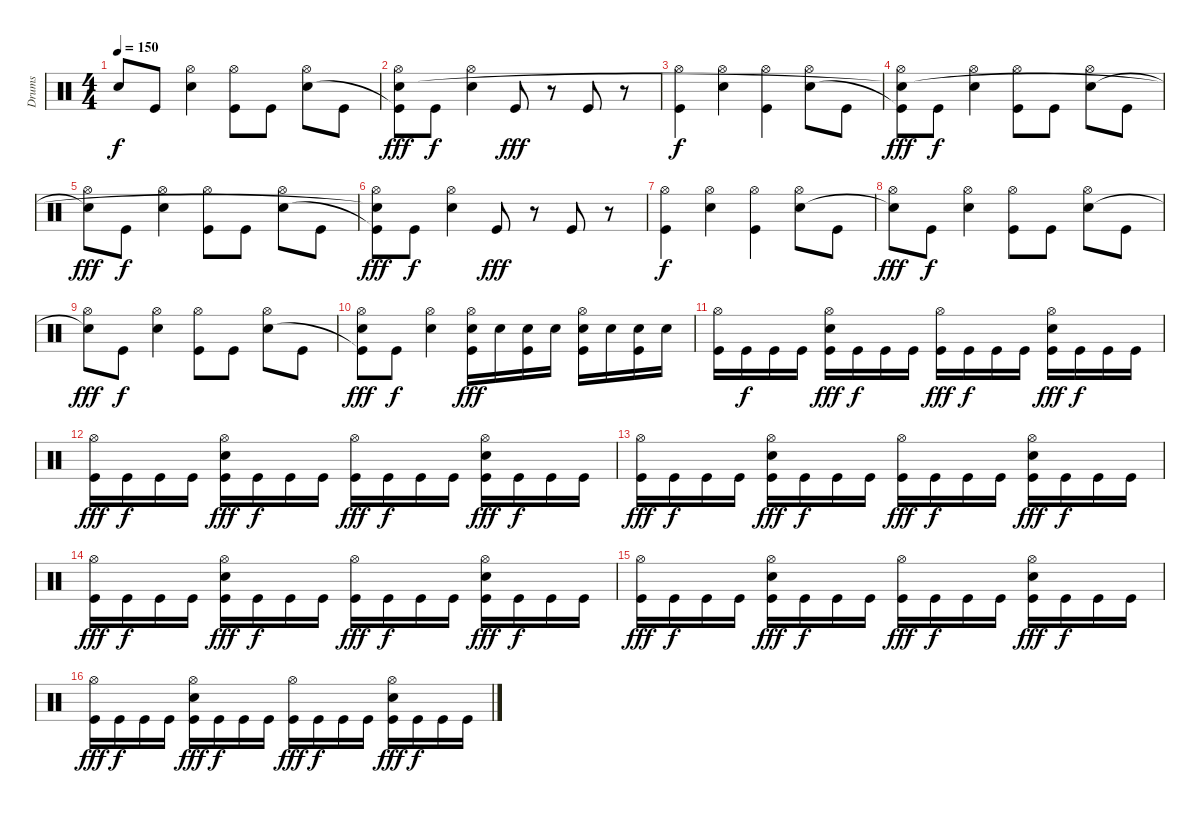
\track ("Drums" "Drums") {instrument percussion}
\staff {score}
\articulation defaults
\ts (4 4)
\tempo 150
\clef neutral
\ks c "Snare (hit)"{t}.8{dy f} "Kick (hit)".8
("Hi-Hat (open)" "Snare (hit) 2").4 ("Hi-Hat (open)" "Kick (hit)").8 "Kick (hit)".8 ("Hi-Hat (open)" "Snare (hit) 2").8 "Kick (hit)".8 |
("Hi-Hat (open)" "Kick (hit)"{t} "Snare (hit)"{t}).8{dy fff} "Kick (hit)".8{dy f} ("Hi-Hat (open)" "Snare (hit) 2").4 "Kick (hit)".8{dy fff} r.8 "Kick (hit)".8 r.8 |
("Hi-Hat (open)" "Kick (hit)").4{dy f} ("Hi-Hat (open)" "Snare (hit) 2").4 ("Hi-Hat (open)" "Kick (hit)").4 ("Hi-Hat (open)" "Snare (hit) 2").8 "Kick (hit)".8 |
("Hi-Hat (open)" "Kick (hit)"{t} "Snare (hit)"{t}).8{dy fff} "Kick (hit)".8{dy f} ("Hi-Hat (open)" "Snare (hit) 2").4 ("Hi-Hat (open)" "Kick (hit)").8 "Kick (hit)".8 ("Hi-Hat (open)" "Snare (hit) 2").8 "Kick (hit)".8 |
("Hi-Hat (open)" "Snare (hit)"{t}).8{dy fff} "Kick (hit)".8{dy f} ("Hi-Hat (open)" "Snare (hit) 2").4 ("Hi-Hat (open)" "Kick (hit)").8 "Kick (hit)".8 ("Hi-Hat (open)" "Snare (hit) 2").8 "Kick (hit)".8 |
("Hi-Hat (open)" "Kick (hit)"{t} "Snare (hit)"{t}).8{dy fff} "Kick (hit)".8{dy f} ("Hi-Hat (open)" "Snare (hit) 2").4 "Kick (hit)".8{dy fff} r.8 "Kick (hit)".8 r.8 |
("Hi-Hat (open)" "Kick (hit)").4{dy f} ("Hi-Hat (open)" "Snare (hit) 2").4 ("Hi-Hat (open)" "Kick (hit)").4 ("Hi-Hat (open)" "Snare (hit) 2").8 "Kick (hit)".8 |
("Hi-Hat (open)" "Snare (hit)"{t}).8{dy fff} "Kick (hit)".8{dy f} ("Hi-Hat (open)" "Snare (hit) 2").4 ("Hi-Hat (open)" "Kick (hit)").8 "Kick (hit)".8 ("Hi-Hat (open)" "Snare (hit) 2").8 "Kick (hit)".8 |
("Hi-Hat (open)" "Snare (hit)"{t}).8{dy fff} "Kick (hit)".8{dy f} ("Hi-Hat (open)" "Snare (hit) 2").4 ("Hi-Hat (open)" "Kick (hit)").8 "Kick (hit)".8 ("Hi-Hat (open)" "Snare (hit) 2").8 "Kick (hit)".8 |
("Hi-Hat (open)" "Kick (hit)"{t} "Snare (hit)").8{dy fff} "Kick (hit)".8{dy f} ("Hi-Hat (open)" "Snare (hit) 2").4 ("Hi-Hat (open)" "Snare (hit) 2" "Kick (hit)").16{dy fff} "Snare (hit) 2".16 ("Snare (hit) 2" "Kick (hit)").16 "Snare (hit) 2".16 ("Hi-Hat (open)" "Snare (hit) 2" "Kick (hit)").16 "Snare (hit) 2".16 ("Snare (hit) 2" "Kick (hit)").16 "Snare (hit) 2".16 |
("Hi-Hat (open)" "Kick (hit)").16 "Kick (hit)".16{dy f} "Kick (hit)".16 "Kick (hit)".16 ("Hi-Hat (open)" "Snare (hit) 2" "Kick (hit)").16{dy fff} "Kick (hit)".16{dy f} "Kick (hit)".16 "Kick (hit)".16 ("Hi-Hat (open)" "Kick (hit)").16{dy fff} "Kick (hit)".16{dy f} "Kick (hit)".16 "Kick (hit)".16 ("Hi-Hat (open)" "Snare (hit) 2" "Kick (hit)").16{dy fff} "Kick (hit)".16{dy f} "Kick (hit)".16 "Kick (hit)".16 |
("Hi-Hat (open)" "Kick (hit)").16{dy fff} "Kick (hit)".16{dy f} "Kick (hit)".16 "Kick (hit)".16 ("Hi-Hat (open)" "Snare (hit) 2" "Kick (hit)").16{dy fff} "Kick (hit)".16{dy f} "Kick (hit)".16 "Kick (hit)".16 ("Hi-Hat (open)" "Kick (hit)").16{dy fff} "Kick (hit)".16{dy f} "Kick (hit)".16 "Kick (hit)".16 ("Hi-Hat (open)" "Snare (hit) 2" "Kick (hit)").16{dy fff} "Kick (hit)".16{dy f} "Kick (hit)".16 "Kick (hit)".16 |
("Hi-Hat (open)" "Kick (hit)").16{dy fff} "Kick (hit)".16{dy f} "Kick (hit)".16 "Kick (hit)".16 ("Hi-Hat (open)" "Snare (hit) 2" "Kick (hit)").16{dy fff} "Kick (hit)".16{dy f} "Kick (hit)".16 "Kick (hit)".16 ("Hi-Hat (open)" "Kick (hit)").16{dy fff} "Kick (hit)".16{dy f} "Kick (hit)".16 "Kick (hit)".16 ("Hi-Hat (open)" "Snare (hit) 2" "Kick (hit)").16{dy fff} "Kick (hit)".16{dy f} "Kick (hit)".16 "Kick (hit)".16 |
("Hi-Hat (open)" "Kick (hit)").16{dy fff} "Kick (hit)".16{dy f} "Kick (hit)".16 "Kick (hit)".16 ("Hi-Hat (open)" "Snare (hit) 2" "Kick (hit)").16{dy fff} "Kick (hit)".16{dy f} "Kick (hit)".16 "Kick (hit)".16 ("Hi-Hat (open)" "Kick (hit)").16{dy fff} "Kick (hit)".16{dy f} "Kick (hit)".16 "Kick (hit)".16 ("Hi-Hat (open)" "Snare (hit) 2" "Kick (hit)").16{dy fff} "Kick (hit)".16{dy f} "Kick (hit)".16 "Kick (hit)".16 |
("Hi-Hat (open)" "Kick (hit)").16{dy fff} "Kick (hit)".16{dy f} "Kick (hit)".16 "Kick (hit)".16 ("Hi-Hat (open)" "Snare (hit) 2" "Kick (hit)").16{dy fff} "Kick (hit)".16{dy f} "Kick (hit)".16 "Kick (hit)".16 ("Hi-Hat (open)" "Kick (hit)").16{dy fff} "Kick (hit)".16{dy f} "Kick (hit)".16 "Kick (hit)".16 ("Hi-Hat (open)" "Snare (hit) 2" "Kick (hit)").16{dy fff} "Kick (hit)".16{dy f} "Kick (hit)".16 "Kick (hit)".16 |
("Hi-Hat (open)" "Kick (hit)").16{dy fff} "Kick (hit)".16{dy f} "Kick (hit)".16 "Kick (hit)".16 ("Hi-Hat (open)" "Snare (hit) 2" "Kick (hit)").16{dy fff} "Kick (hit)".16{dy f} "Kick (hit)".16 "Kick (hit)".16 ("Hi-Hat (open)" "Kick (hit)").16{dy fff} "Kick (hit)".16{dy f} "Kick (hit)".16 "Kick (hit)".16 ("Hi-Hat (open)" "Snare (hit) 2" "Kick (hit)").16{dy fff} "Kick (hit)".16{dy f} "Kick (hit)".16 "Kick (hit)".16
